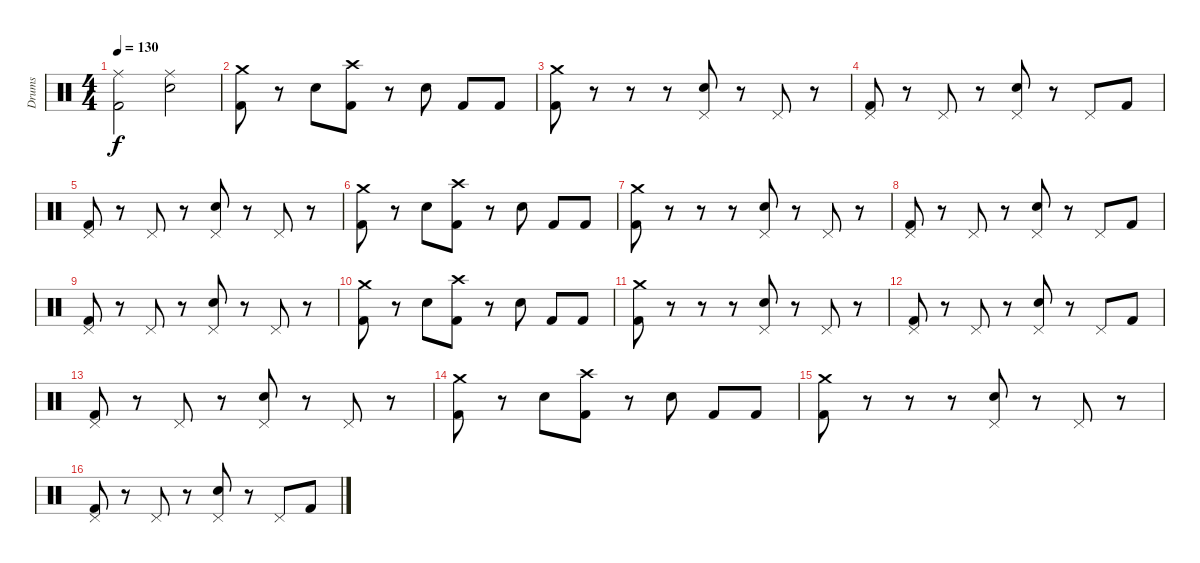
\track ("Drums" "Drums") {instrument percussion}
\staff {score}
\articulation defaults
\ts (4 4)
\tempo 130
\clef neutral
\ks c
("Ride (middle)" "Kick (hit) 2").2{dy f} ("Ride (middle)" "Electric Snare (hit)").2 |
("Crash medium (hit)" "Kick (hit) 2").8 r.8 "Electric Snare (hit)".8 ("Crash high (hit)" "Kick (hit) 2").8 r.8 "Electric Snare (hit)".8 "Kick (hit) 2".8 "Kick (hit) 2".8 |
\section ("" "")
("Crash medium (hit)" "Kick (hit) 2").8 r.8 r.8 r.8 ("Pedal Hi-Hat (hit)" "Electric Snare (hit)").8 r.8 "Pedal Hi-Hat (hit)".8 r.8 |
("Pedal Hi-Hat (hit)" "Kick (hit) 2").8 r.8 "Pedal Hi-Hat (hit)".8 r.8 ("Pedal Hi-Hat (hit)" "Electric Snare (hit)").8 r.8 "Pedal Hi-Hat (hit)".8 "Kick (hit) 2".8 |
("Pedal Hi-Hat (hit)" "Kick (hit) 2").8 r.8 "Pedal Hi-Hat (hit)".8 r.8 ("Pedal Hi-Hat (hit)" "Electric Snare (hit)").8 r.8 "Pedal Hi-Hat (hit)".8 r.8 |
("Crash medium (hit)" "Kick (hit) 2").8 r.8 "Electric Snare (hit)".8 ("Crash high (hit)" "Kick (hit) 2").8 r.8 "Electric Snare (hit)".8 "Kick (hit) 2".8 "Kick (hit) 2".8 |
("Crash medium (hit)" "Kick (hit) 2").8 r.8 r.8 r.8 ("Pedal Hi-Hat (hit)" "Electric Snare (hit)").8 r.8 "Pedal Hi-Hat (hit)".8 r.8 |
("Pedal Hi-Hat (hit)" "Kick (hit) 2").8 r.8 "Pedal Hi-Hat (hit)".8 r.8 ("Pedal Hi-Hat (hit)" "Electric Snare (hit)").8 r.8 "Pedal Hi-Hat (hit)".8 "Kick (hit) 2".8 |
("Pedal Hi-Hat (hit)" "Kick (hit) 2").8 r.8 "Pedal Hi-Hat (hit)".8 r.8 ("Pedal Hi-Hat (hit)" "Electric Snare (hit)").8 r.8 "Pedal Hi-Hat (hit)".8 r.8 |
("Crash medium (hit)" "Kick (hit) 2").8 r.8 "Electric Snare (hit)".8 ("Crash high (hit)" "Kick (hit) 2").8 r.8 "Electric Snare (hit)".8 "Kick (hit) 2".8 "Kick (hit) 2".8 |
\section ("" "")
("Crash medium (hit)" "Kick (hit) 2").8 r.8 r.8 r.8 ("Pedal Hi-Hat (hit)" "Electric Snare (hit)").8 r.8 "Pedal Hi-Hat (hit)".8 r.8 |
("Pedal Hi-Hat (hit)" "Kick (hit) 2").8 r.8 "Pedal Hi-Hat (hit)".8 r.8 ("Pedal Hi-Hat (hit)" "Electric Snare (hit)").8 r.8 "Pedal Hi-Hat (hit)".8 "Kick (hit) 2".8 |
("Pedal Hi-Hat (hit)" "Kick (hit) 2").8 r.8 "Pedal Hi-Hat (hit)".8 r.8 ("Pedal Hi-Hat (hit)" "Electric Snare (hit)").8 r.8 "Pedal Hi-Hat (hit)".8 r.8 |
("Crash medium (hit)" "Kick (hit) 2").8 r.8 "Electric Snare (hit)".8 ("Crash high (hit)" "Kick (hit) 2").8 r.8 "Electric Snare (hit)".8 "Kick (hit) 2".8 "Kick (hit) 2".8 |
("Crash medium (hit)" "Kick (hit) 2").8 r.8 r.8 r.8 ("Pedal Hi-Hat (hit)" "Electric Snare (hit)").8 r.8 "Pedal Hi-Hat (hit)".8 r.8 |
("Pedal Hi-Hat (hit)" "Kick (hit) 2").8 r.8 "Pedal Hi-Hat (hit)".8 r.8 ("Pedal Hi-Hat (hit)" "Electric Snare (hit)").8 r.8 "Pedal Hi-Hat (hit)".8 "Kick (hit) 2".8
